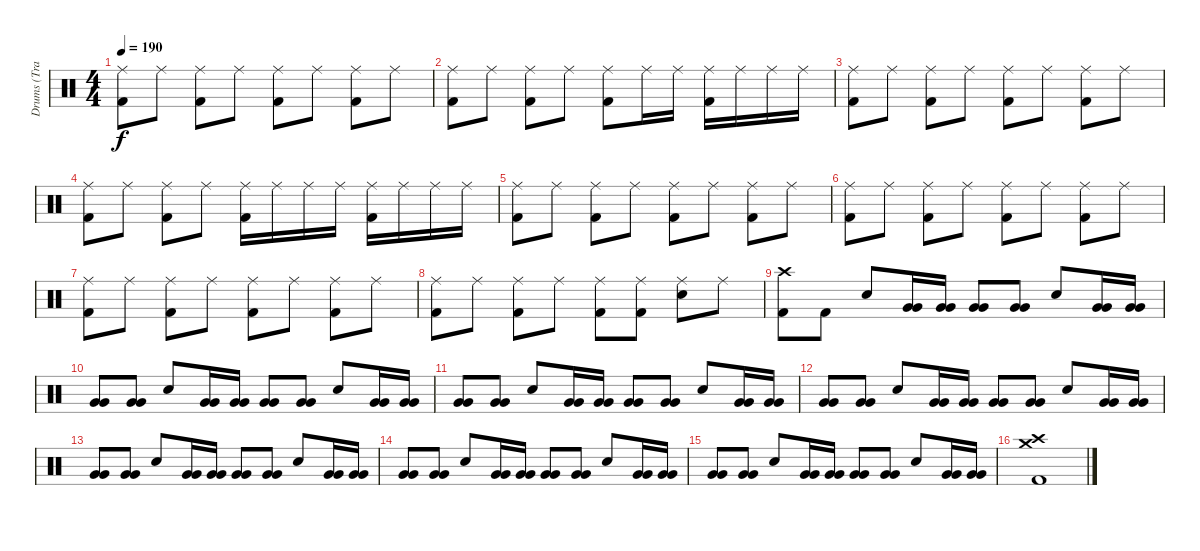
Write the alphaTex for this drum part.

\track ("Drums (Travis)" "Drums (Tra") {instrument percussion}
\staff {score}
\articulation defaults
\ts (4 4)
\tempo 190
\clef neutral
\ks c
("Ride (middle)" "Kick (hit) 2").8{dy f} "Ride (middle)".8 ("Ride (middle)" "Kick (hit) 2").8 "Ride (middle)".8 ("Ride (middle)" "Kick (hit) 2").8 "Ride (middle)".8 ("Ride (middle)" "Kick (hit) 2").8 "Ride (middle)".8 |
("Ride (middle)" "Kick (hit) 2").8 "Ride (middle)".8 ("Ride (middle)" "Kick (hit) 2").8 "Ride (middle)".8 ("Ride (middle)" "Kick (hit) 2").8 "Ride (middle)".16 "Ride (middle)".16 ("Ride (middle)" "Kick (hit) 2").16 "Ride (middle)".16 "Ride (middle)".16 "Ride (middle)".16 |
("Ride (middle)" "Kick (hit) 2").8 "Ride (middle)".8 ("Ride (middle)" "Kick (hit) 2").8 "Ride (middle)".8 ("Ride (middle)" "Kick (hit) 2").8 "Ride (middle)".8 ("Ride (middle)" "Kick (hit) 2").8 "Ride (middle)".8 |
("Ride (middle)" "Kick (hit) 2").8 "Ride (middle)".8 ("Ride (middle)" "Kick (hit) 2").8 "Ride (middle)".8 ("Ride (middle)" "Kick (hit) 2").16 "Ride (middle)".16 "Ride (middle)".16 "Ride (middle)".16 ("Ride (middle)" "Kick (hit) 2").16 "Ride (middle)".16 "Ride (middle)".16 "Ride (middle)".16 |
("Ride (middle)" "Kick (hit) 2").8 "Ride (middle)".8 ("Ride (middle)" "Kick (hit) 2").8 "Ride (middle)".8 ("Ride (middle)" "Kick (hit) 2").8 "Ride (middle)".8 ("Ride (middle)" "Kick (hit) 2").8 "Ride (middle)".8 |
("Ride (middle)" "Kick (hit) 2").8 "Ride (middle)".8 ("Ride (middle)" "Kick (hit) 2").8 "Ride (middle)".8 ("Ride (middle)" "Kick (hit) 2").8 "Ride (middle)".8 ("Ride (middle)" "Kick (hit) 2").8 "Ride (middle)".8 |
("Ride (middle)" "Kick (hit) 2").8 "Ride (middle)".8 ("Ride (middle)" "Kick (hit) 2").8 "Ride (middle)".8 ("Ride (middle)" "Kick (hit) 2").8 "Ride (middle)".8 ("Ride (middle)" "Kick (hit) 2").8 "Ride (middle)".8 |
("Ride (middle)" "Kick (hit) 2").8 "Ride (middle)".8 ("Ride (middle)" "Kick (hit) 2").8 "Ride (middle)".8 ("Ride (middle)" "Kick (hit) 2").8 ("Ride (middle)" "Kick (hit) 2").8 ("Ride (middle)" "Electric Snare (hit)").8 "Ride (middle)".8 |
("Crash high (hit)" "Kick (hit) 2").8 "Kick (hit) 2".8 "Electric Snare (hit)".8 ("Very Low Tom (hit)" "Very Low Tom (hit)").16 ("Very Low Tom (hit)" "Very Low Tom (hit)").16 ("Very Low Tom (hit)" "Very Low Tom (hit)").8 ("Very Low Tom (hit)" "Very Low Tom (hit)").8 "Electric Snare (hit)".8 ("Very Low Tom (hit)" "Very Low Tom (hit)").16 ("Very Low Tom (hit)" "Very Low Tom (hit)").16 |
("Very Low Tom (hit)" "Very Low Tom (hit)").8 ("Very Low Tom (hit)" "Very Low Tom (hit)").8 "Electric Snare (hit)".8 ("Very Low Tom (hit)" "Very Low Tom (hit)").16 ("Very Low Tom (hit)" "Very Low Tom (hit)").16 ("Very Low Tom (hit)" "Very Low Tom (hit)").8 ("Very Low Tom (hit)" "Very Low Tom (hit)").8 "Electric Snare (hit)".8 ("Very Low Tom (hit)" "Very Low Tom (hit)").16 ("Very Low Tom (hit)" "Very Low Tom (hit)").16 |
("Very Low Tom (hit)" "Very Low Tom (hit)").8 ("Very Low Tom (hit)" "Very Low Tom (hit)").8 "Electric Snare (hit)".8 ("Very Low Tom (hit)" "Very Low Tom (hit)").16 ("Very Low Tom (hit)" "Very Low Tom (hit)").16 ("Very Low Tom (hit)" "Very Low Tom (hit)").8 ("Very Low Tom (hit)" "Very Low Tom (hit)").8 "Electric Snare (hit)".8 ("Very Low Tom (hit)" "Very Low Tom (hit)").16 ("Very Low Tom (hit)" "Very Low Tom (hit)").16 |
("Very Low Tom (hit)" "Very Low Tom (hit)").8 ("Very Low Tom (hit)" "Very Low Tom (hit)").8 "Electric Snare (hit)".8 ("Very Low Tom (hit)" "Very Low Tom (hit)").16 ("Very Low Tom (hit)" "Very Low Tom (hit)").16 ("Very Low Tom (hit)" "Very Low Tom (hit)").8 ("Very Low Tom (hit)" "Very Low Tom (hit)").8 "Electric Snare (hit)".8 ("Very Low Tom (hit)" "Very Low Tom (hit)").16 ("Very Low Tom (hit)" "Very Low Tom (hit)").16 |
("Very Low Tom (hit)" "Very Low Tom (hit)").8 ("Very Low Tom (hit)" "Very Low Tom (hit)").8 "Electric Snare (hit)".8 ("Very Low Tom (hit)" "Very Low Tom (hit)").16 ("Very Low Tom (hit)" "Very Low Tom (hit)").16 ("Very Low Tom (hit)" "Very Low Tom (hit)").8 ("Very Low Tom (hit)" "Very Low Tom (hit)").8 "Electric Snare (hit)".8 ("Very Low Tom (hit)" "Very Low Tom (hit)").16 ("Very Low Tom (hit)" "Very Low Tom (hit)").16 |
("Very Low Tom (hit)" "Very Low Tom (hit)").8 ("Very Low Tom (hit)" "Very Low Tom (hit)").8 "Electric Snare (hit)".8 ("Very Low Tom (hit)" "Very Low Tom (hit)").16 ("Very Low Tom (hit)" "Very Low Tom (hit)").16 ("Very Low Tom (hit)" "Very Low Tom (hit)").8 ("Very Low Tom (hit)" "Very Low Tom (hit)").8 "Electric Snare (hit)".8 ("Very Low Tom (hit)" "Very Low Tom (hit)").16 ("Very Low Tom (hit)" "Very Low Tom (hit)").16 |
("Very Low Tom (hit)" "Very Low Tom (hit)").8 ("Very Low Tom (hit)" "Very Low Tom (hit)").8 "Electric Snare (hit)".8 ("Very Low Tom (hit)" "Very Low Tom (hit)").16 ("Very Low Tom (hit)" "Very Low Tom (hit)").16 ("Very Low Tom (hit)" "Very Low Tom (hit)").8 ("Very Low Tom (hit)" "Very Low Tom (hit)").8 "Electric Snare (hit)".8 ("Very Low Tom (hit)" "Very Low Tom (hit)").16 ("Very Low Tom (hit)" "Very Low Tom (hit)").16 |
("Crash high (hit)" "Crash medium (hit)" "Kick (hit) 2").1
